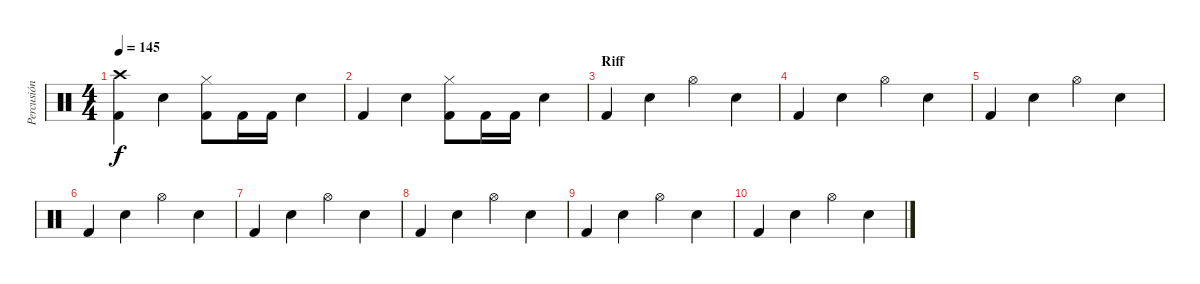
\track ("Percusión" "Percusión") {instrument percussion}
\staff {score}
\articulation defaults
\ts (4 4)
\tempo 145
\clef neutral
\ks c
("Crash high (hit)" "Kick (hit) 2").4{dy f} "Snare (hit) 2".4 ("Hi-Hat (closed)" "Kick (hit) 2").8 "Kick (hit) 2".16 "Kick (hit) 2".16 "Snare (hit) 2".4 |
"Kick (hit) 2".4 "Snare (hit) 2".4 ("Hi-Hat (closed)" "Kick (hit) 2").8 "Kick (hit) 2".16 "Kick (hit) 2".16 "Snare (hit) 2".4 |
\section ("" "Riff")
"Kick (hit) 2".4 "Snare (hit) 2".4 "Hi-Hat (open)".4 "Snare (hit) 2".4 |
"Kick (hit) 2".4 "Snare (hit) 2".4 "Hi-Hat (open)".4 "Snare (hit) 2".4 |
"Kick (hit) 2".4 "Snare (hit) 2".4 "Hi-Hat (open)".4 "Snare (hit) 2".4 |
"Kick (hit) 2".4 "Snare (hit) 2".4 "Hi-Hat (open)".4 "Snare (hit) 2".4 |
"Kick (hit) 2".4 "Snare (hit) 2".4 "Hi-Hat (open)".4 "Snare (hit) 2".4 |
"Kick (hit) 2".4 "Snare (hit) 2".4 "Hi-Hat (open)".4 "Snare (hit) 2".4 |
"Kick (hit) 2".4 "Snare (hit) 2".4 "Hi-Hat (open)".4 "Snare (hit) 2".4 |
"Kick (hit) 2".4 "Snare (hit) 2".4 "Hi-Hat (open)".4 "Snare (hit) 2".4
